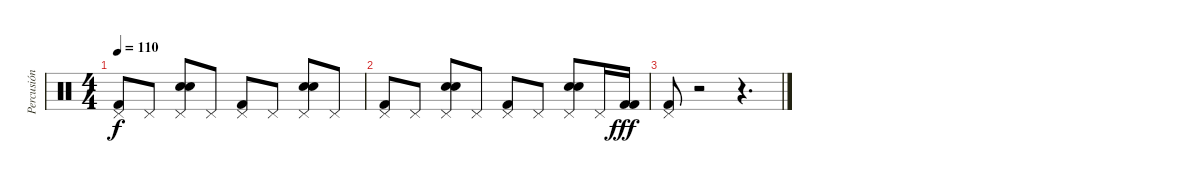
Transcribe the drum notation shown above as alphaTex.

\track ("Percusión" "Percusión") {instrument percussion}
\staff {score}
\articulation defaults
\ts (4 4)
\tempo 110
\clef neutral
\ks c
("Pedal Hi-Hat (hit)" "Kick (hit) 2").8{dy f} "Pedal Hi-Hat (hit)".8 ("Pedal Hi-Hat (hit)" "Snare (hit) 2" "Electric Snare (hit)").8 "Pedal Hi-Hat (hit)".8 ("Pedal Hi-Hat (hit)" "Kick (hit) 2").8 "Pedal Hi-Hat (hit)".8 ("Pedal Hi-Hat (hit)" "Snare (hit) 2" "Electric Snare (hit)").8 "Pedal Hi-Hat (hit)".8 |
("Pedal Hi-Hat (hit)" "Kick (hit) 2").8 "Pedal Hi-Hat (hit)".8 ("Pedal Hi-Hat (hit)" "Snare (hit) 2" "Electric Snare (hit)").8 "Pedal Hi-Hat (hit)".8 ("Pedal Hi-Hat (hit)" "Kick (hit) 2").8 "Pedal Hi-Hat (hit)".8 ("Pedal Hi-Hat (hit)" "Snare (hit) 2" "Electric Snare (hit)").8 "Pedal Hi-Hat (hit)".16 ("Kick (hit) 2" "Kick (hit) 2").16{dy fff} |
("Pedal Hi-Hat (hit)" "Kick (hit) 2").8 r.2 r.4{d}
